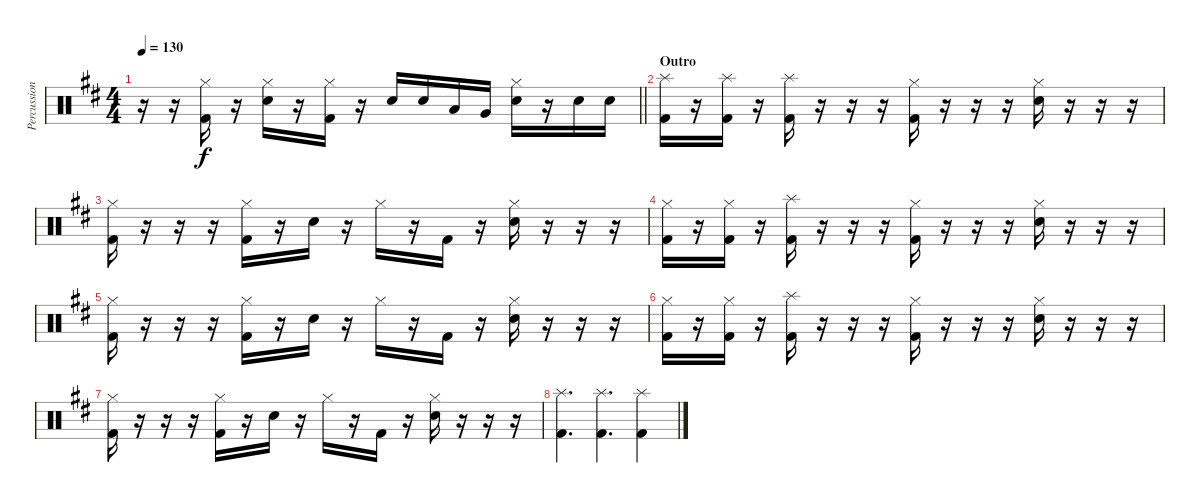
\track ("Percussioni" "Percussion") {instrument percussion}
\staff {score}
\articulation defaults
\ts (4 4)
\tempo 130
\clef neutral
\barLineRight lightlight
\ks d
r.16{dy f} r.16 ("Kick (hit) 2" "Hi-Hat (closed)").16 r.16 ("Snare (hit) 2" "Hi-Hat (closed)").16 r.16 ("Kick (hit) 2" "Hi-Hat (closed)").16 r.16 "Snare (hit) 2".16 "Snare (hit) 2".16 "Low Tom (hit)".16 "Very Low Tom (hit)".16 ("Snare (hit) 2" "Hi-Hat (closed)").16 r.16 "Snare (hit) 2".16 "Snare (hit) 2".16 |
\section ("" "Outro")
("Kick (hit) 2" "Splash (hit)").16 r.16 ("Kick (hit) 2" "Splash (hit)").16 r.16 ("Kick (hit) 2" "Splash (hit)").16 r.16 r.16 r.16 ("Kick (hit) 2" "Hi-Hat (closed)").16 r.16 r.16 r.16 ("Snare (hit) 2" "Hi-Hat (closed)").16 r.16 r.16 r.16 |
("Kick (hit) 2" "Hi-Hat (closed)").16 r.16 r.16 r.16 ("Kick (hit) 2" "Hi-Hat (closed)").16 r.16 "Snare (hit) 2".16 r.16 "Hi-Hat (closed)".16 r.16 "Kick (hit) 2".16 r.16 ("Snare (hit) 2" "Hi-Hat (closed)").16 r.16 r.16 r.16 |
("Kick (hit) 2" "Hi-Hat (closed)").16 r.16 ("Kick (hit) 2" "Hi-Hat (closed)").16 r.16 ("Kick (hit) 2" "Splash (hit)").16 r.16 r.16 r.16 ("Kick (hit) 2" "Hi-Hat (closed)").16 r.16 r.16 r.16 ("Snare (hit) 2" "Hi-Hat (closed)").16 r.16 r.16 r.16 |
("Kick (hit) 2" "Hi-Hat (closed)").16 r.16 r.16 r.16 ("Kick (hit) 2" "Hi-Hat (closed)").16 r.16 "Snare (hit) 2".16 r.16 "Hi-Hat (closed)".16 r.16 "Kick (hit) 2".16 r.16 ("Snare (hit) 2" "Hi-Hat (closed)").16 r.16 r.16 r.16 |
("Kick (hit) 2" "Hi-Hat (closed)").16 r.16 ("Kick (hit) 2" "Hi-Hat (closed)").16 r.16 ("Kick (hit) 2" "Splash (hit)").16 r.16 r.16 r.16 ("Kick (hit) 2" "Hi-Hat (closed)").16 r.16 r.16 r.16 ("Snare (hit) 2" "Hi-Hat (closed)").16 r.16 r.16 r.16 |
("Kick (hit) 2" "Hi-Hat (closed)").16 r.16 r.16 r.16 ("Kick (hit) 2" "Hi-Hat (closed)").16 r.16 "Snare (hit) 2".16 r.16 "Hi-Hat (closed)".16 r.16 "Kick (hit) 2".16 r.16 ("Snare (hit) 2" "Hi-Hat (closed)").16 r.16 r.16 r.16 |
("Kick (hit) 2" "Splash (hit)").4{d} ("Kick (hit) 2" "Splash (hit)").4{d} ("Kick (hit) 2" "Splash (hit)").4
